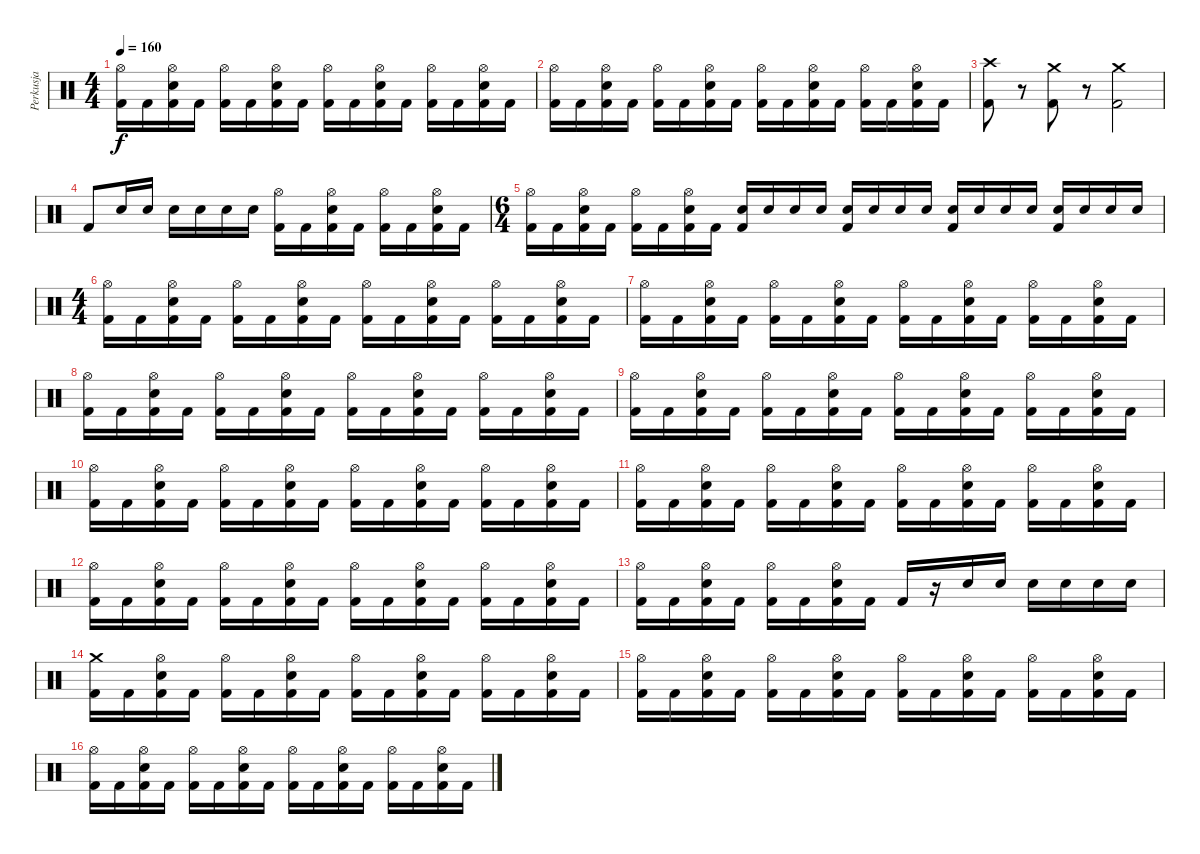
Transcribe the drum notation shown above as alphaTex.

\track ("Perkusja" "Perkusja") {instrument percussion}
\staff {score}
\articulation defaults
\ts (4 4)
\tempo 160
\clef neutral
\ks c
("Hi-Hat (open)" "Kick (hit) 2").16{dy f} "Kick (hit) 2".16 ("Hi-Hat (open)" "Snare (hit) 2" "Kick (hit) 2").16 "Kick (hit) 2".16 ("Hi-Hat (open)" "Kick (hit) 2").16 "Kick (hit) 2".16 ("Hi-Hat (open)" "Snare (hit) 2" "Kick (hit) 2").16 "Kick (hit) 2".16 ("Hi-Hat (open)" "Kick (hit) 2").16 "Kick (hit) 2".16 ("Hi-Hat (open)" "Snare (hit) 2" "Kick (hit) 2").16 "Kick (hit) 2".16 ("Hi-Hat (open)" "Kick (hit) 2").16 "Kick (hit) 2".16 ("Hi-Hat (open)" "Snare (hit) 2" "Kick (hit) 2").16 "Kick (hit) 2".16 |
("Hi-Hat (open)" "Kick (hit) 2").16 "Kick (hit) 2".16 ("Hi-Hat (open)" "Snare (hit) 2" "Kick (hit) 2").16 "Kick (hit) 2".16 ("Hi-Hat (open)" "Kick (hit) 2").16 "Kick (hit) 2".16 ("Hi-Hat (open)" "Snare (hit) 2" "Kick (hit) 2").16 "Kick (hit) 2".16 ("Hi-Hat (open)" "Kick (hit) 2").16 "Kick (hit) 2".16 ("Hi-Hat (open)" "Snare (hit) 2" "Kick (hit) 2").16 "Kick (hit) 2".16 ("Hi-Hat (open)" "Kick (hit) 2").16 "Kick (hit) 2".16 ("Hi-Hat (open)" "Snare (hit) 2" "Kick (hit) 2").16 "Kick (hit) 2".16 |
("Crash high (hit)" "Kick (hit) 2").8 r.8 ("Crash medium (hit)" "Kick (hit) 2").8 r.8 ("Crash medium (hit)" "Kick (hit) 2").2 |
"Kick (hit) 2".8 "Snare (hit) 2".16 "Snare (hit) 2".16 "Snare (hit) 2".16 "Snare (hit) 2".16 "Snare (hit) 2".16 "Snare (hit) 2".16 ("Hi-Hat (open)" "Kick (hit) 2").16 "Kick (hit) 2".16 ("Hi-Hat (open)" "Snare (hit) 2" "Kick (hit) 2").16 "Kick (hit) 2".16 ("Hi-Hat (open)" "Kick (hit) 2").16 "Kick (hit) 2".16 ("Hi-Hat (open)" "Snare (hit) 2" "Kick (hit) 2").16 "Kick (hit) 2".16 |
\ts (6 4)
("Hi-Hat (open)" "Kick (hit) 2").16 "Kick (hit) 2".16 ("Hi-Hat (open)" "Snare (hit) 2" "Kick (hit) 2").16 "Kick (hit) 2".16 ("Hi-Hat (open)" "Kick (hit) 2").16 "Kick (hit) 2".16 ("Hi-Hat (open)" "Snare (hit) 2" "Kick (hit) 2").16 "Kick (hit) 2".16 ("Snare (hit) 2" "Kick (hit) 2").16 "Snare (hit) 2".16 "Snare (hit) 2".16 "Snare (hit) 2".16 ("Snare (hit) 2" "Kick (hit) 2").16 "Snare (hit) 2".16 "Snare (hit) 2".16 "Snare (hit) 2".16 ("Snare (hit) 2" "Kick (hit) 2").16 "Snare (hit) 2".16 "Snare (hit) 2".16 "Snare (hit) 2".16 ("Snare (hit) 2" "Kick (hit) 2").16 "Snare (hit) 2".16 "Snare (hit) 2".16 "Snare (hit) 2".16 |
\ts (4 4)
("Hi-Hat (open)" "Kick (hit) 2").16 "Kick (hit) 2".16 ("Hi-Hat (open)" "Snare (hit) 2" "Kick (hit) 2").16 "Kick (hit) 2".16 ("Hi-Hat (open)" "Kick (hit) 2").16 "Kick (hit) 2".16 ("Hi-Hat (open)" "Snare (hit) 2" "Kick (hit) 2").16 "Kick (hit) 2".16 ("Hi-Hat (open)" "Kick (hit) 2").16 "Kick (hit) 2".16 ("Hi-Hat (open)" "Snare (hit) 2" "Kick (hit) 2").16 "Kick (hit) 2".16 ("Hi-Hat (open)" "Kick (hit) 2").16 "Kick (hit) 2".16 ("Hi-Hat (open)" "Snare (hit) 2" "Kick (hit) 2").16 "Kick (hit) 2".16 |
("Hi-Hat (open)" "Kick (hit) 2").16 "Kick (hit) 2".16 ("Hi-Hat (open)" "Snare (hit) 2" "Kick (hit) 2").16 "Kick (hit) 2".16 ("Hi-Hat (open)" "Kick (hit) 2").16 "Kick (hit) 2".16 ("Hi-Hat (open)" "Snare (hit) 2" "Kick (hit) 2").16 "Kick (hit) 2".16 ("Hi-Hat (open)" "Kick (hit) 2").16 "Kick (hit) 2".16 ("Hi-Hat (open)" "Snare (hit) 2" "Kick (hit) 2").16 "Kick (hit) 2".16 ("Hi-Hat (open)" "Kick (hit) 2").16 "Kick (hit) 2".16 ("Hi-Hat (open)" "Snare (hit) 2" "Kick (hit) 2").16 "Kick (hit) 2".16 |
("Hi-Hat (open)" "Kick (hit) 2").16 "Kick (hit) 2".16 ("Hi-Hat (open)" "Snare (hit) 2" "Kick (hit) 2").16 "Kick (hit) 2".16 ("Hi-Hat (open)" "Kick (hit) 2").16 "Kick (hit) 2".16 ("Hi-Hat (open)" "Snare (hit) 2" "Kick (hit) 2").16 "Kick (hit) 2".16 ("Hi-Hat (open)" "Kick (hit) 2").16 "Kick (hit) 2".16 ("Hi-Hat (open)" "Snare (hit) 2" "Kick (hit) 2").16 "Kick (hit) 2".16 ("Hi-Hat (open)" "Kick (hit) 2").16 "Kick (hit) 2".16 ("Hi-Hat (open)" "Snare (hit) 2" "Kick (hit) 2").16 "Kick (hit) 2".16 |
("Hi-Hat (open)" "Kick (hit) 2").16 "Kick (hit) 2".16 ("Hi-Hat (open)" "Snare (hit) 2" "Kick (hit) 2").16 "Kick (hit) 2".16 ("Hi-Hat (open)" "Kick (hit) 2").16 "Kick (hit) 2".16 ("Hi-Hat (open)" "Snare (hit) 2" "Kick (hit) 2").16 "Kick (hit) 2".16 ("Hi-Hat (open)" "Kick (hit) 2").16 "Kick (hit) 2".16 ("Hi-Hat (open)" "Snare (hit) 2" "Kick (hit) 2").16 "Kick (hit) 2".16 ("Hi-Hat (open)" "Kick (hit) 2").16 "Kick (hit) 2".16 ("Hi-Hat (open)" "Snare (hit) 2" "Kick (hit) 2").16 "Kick (hit) 2".16 |
("Hi-Hat (open)" "Kick (hit) 2").16 "Kick (hit) 2".16 ("Hi-Hat (open)" "Snare (hit) 2" "Kick (hit) 2").16 "Kick (hit) 2".16 ("Hi-Hat (open)" "Kick (hit) 2").16 "Kick (hit) 2".16 ("Hi-Hat (open)" "Snare (hit) 2" "Kick (hit) 2").16 "Kick (hit) 2".16 ("Hi-Hat (open)" "Kick (hit) 2").16 "Kick (hit) 2".16 ("Hi-Hat (open)" "Snare (hit) 2" "Kick (hit) 2").16 "Kick (hit) 2".16 ("Hi-Hat (open)" "Kick (hit) 2").16 "Kick (hit) 2".16 ("Hi-Hat (open)" "Snare (hit) 2" "Kick (hit) 2").16 "Kick (hit) 2".16 |
("Hi-Hat (open)" "Kick (hit) 2").16 "Kick (hit) 2".16 ("Hi-Hat (open)" "Snare (hit) 2" "Kick (hit) 2").16 "Kick (hit) 2".16 ("Hi-Hat (open)" "Kick (hit) 2").16 "Kick (hit) 2".16 ("Hi-Hat (open)" "Snare (hit) 2" "Kick (hit) 2").16 "Kick (hit) 2".16 ("Hi-Hat (open)" "Kick (hit) 2").16 "Kick (hit) 2".16 ("Hi-Hat (open)" "Snare (hit) 2" "Kick (hit) 2").16 "Kick (hit) 2".16 ("Hi-Hat (open)" "Kick (hit) 2").16 "Kick (hit) 2".16 ("Hi-Hat (open)" "Snare (hit) 2" "Kick (hit) 2").16 "Kick (hit) 2".16 |
("Hi-Hat (open)" "Kick (hit) 2").16 "Kick (hit) 2".16 ("Hi-Hat (open)" "Snare (hit) 2" "Kick (hit) 2").16 "Kick (hit) 2".16 ("Hi-Hat (open)" "Kick (hit) 2").16 "Kick (hit) 2".16 ("Hi-Hat (open)" "Snare (hit) 2" "Kick (hit) 2").16 "Kick (hit) 2".16 ("Hi-Hat (open)" "Kick (hit) 2").16 "Kick (hit) 2".16 ("Hi-Hat (open)" "Snare (hit) 2" "Kick (hit) 2").16 "Kick (hit) 2".16 ("Hi-Hat (open)" "Kick (hit) 2").16 "Kick (hit) 2".16 ("Hi-Hat (open)" "Snare (hit) 2" "Kick (hit) 2").16 "Kick (hit) 2".16 |
("Hi-Hat (open)" "Kick (hit) 2").16 "Kick (hit) 2".16 ("Hi-Hat (open)" "Snare (hit) 2" "Kick (hit) 2").16 "Kick (hit) 2".16 ("Hi-Hat (open)" "Kick (hit) 2").16 "Kick (hit) 2".16 ("Hi-Hat (open)" "Snare (hit) 2" "Kick (hit) 2").16 "Kick (hit) 2".16 "Kick (hit) 2".16 r.16 "Snare (hit) 2".16 "Snare (hit) 2".16 "Snare (hit) 2".16 "Snare (hit) 2".16 "Snare (hit) 2".16 "Snare (hit) 2".16 |
("Crash medium (hit)" "Kick (hit) 2").16 "Kick (hit) 2".16 ("Hi-Hat (open)" "Snare (hit) 2" "Kick (hit) 2").16 "Kick (hit) 2".16 ("Hi-Hat (open)" "Kick (hit) 2").16 "Kick (hit) 2".16 ("Hi-Hat (open)" "Snare (hit) 2" "Kick (hit) 2").16 "Kick (hit) 2".16 ("Hi-Hat (open)" "Kick (hit) 2").16 "Kick (hit) 2".16 ("Hi-Hat (open)" "Snare (hit) 2" "Kick (hit) 2").16 "Kick (hit) 2".16 ("Hi-Hat (open)" "Kick (hit) 2").16 "Kick (hit) 2".16 ("Hi-Hat (open)" "Snare (hit) 2" "Kick (hit) 2").16 "Kick (hit) 2".16 |
("Hi-Hat (open)" "Kick (hit) 2").16 "Kick (hit) 2".16 ("Hi-Hat (open)" "Snare (hit) 2" "Kick (hit) 2").16 "Kick (hit) 2".16 ("Hi-Hat (open)" "Kick (hit) 2").16 "Kick (hit) 2".16 ("Hi-Hat (open)" "Snare (hit) 2" "Kick (hit) 2").16 "Kick (hit) 2".16 ("Hi-Hat (open)" "Kick (hit) 2").16 "Kick (hit) 2".16 ("Hi-Hat (open)" "Snare (hit) 2" "Kick (hit) 2").16 "Kick (hit) 2".16 ("Hi-Hat (open)" "Kick (hit) 2").16 "Kick (hit) 2".16 ("Hi-Hat (open)" "Snare (hit) 2" "Kick (hit) 2").16 "Kick (hit) 2".16 |
("Hi-Hat (open)" "Kick (hit) 2").16 "Kick (hit) 2".16 ("Hi-Hat (open)" "Snare (hit) 2" "Kick (hit) 2").16 "Kick (hit) 2".16 ("Hi-Hat (open)" "Kick (hit) 2").16 "Kick (hit) 2".16 ("Hi-Hat (open)" "Snare (hit) 2" "Kick (hit) 2").16 "Kick (hit) 2".16 ("Hi-Hat (open)" "Kick (hit) 2").16 "Kick (hit) 2".16 ("Hi-Hat (open)" "Snare (hit) 2" "Kick (hit) 2").16 "Kick (hit) 2".16 ("Hi-Hat (open)" "Kick (hit) 2").16 "Kick (hit) 2".16 ("Hi-Hat (open)" "Snare (hit) 2" "Kick (hit) 2").16 "Kick (hit) 2".16
